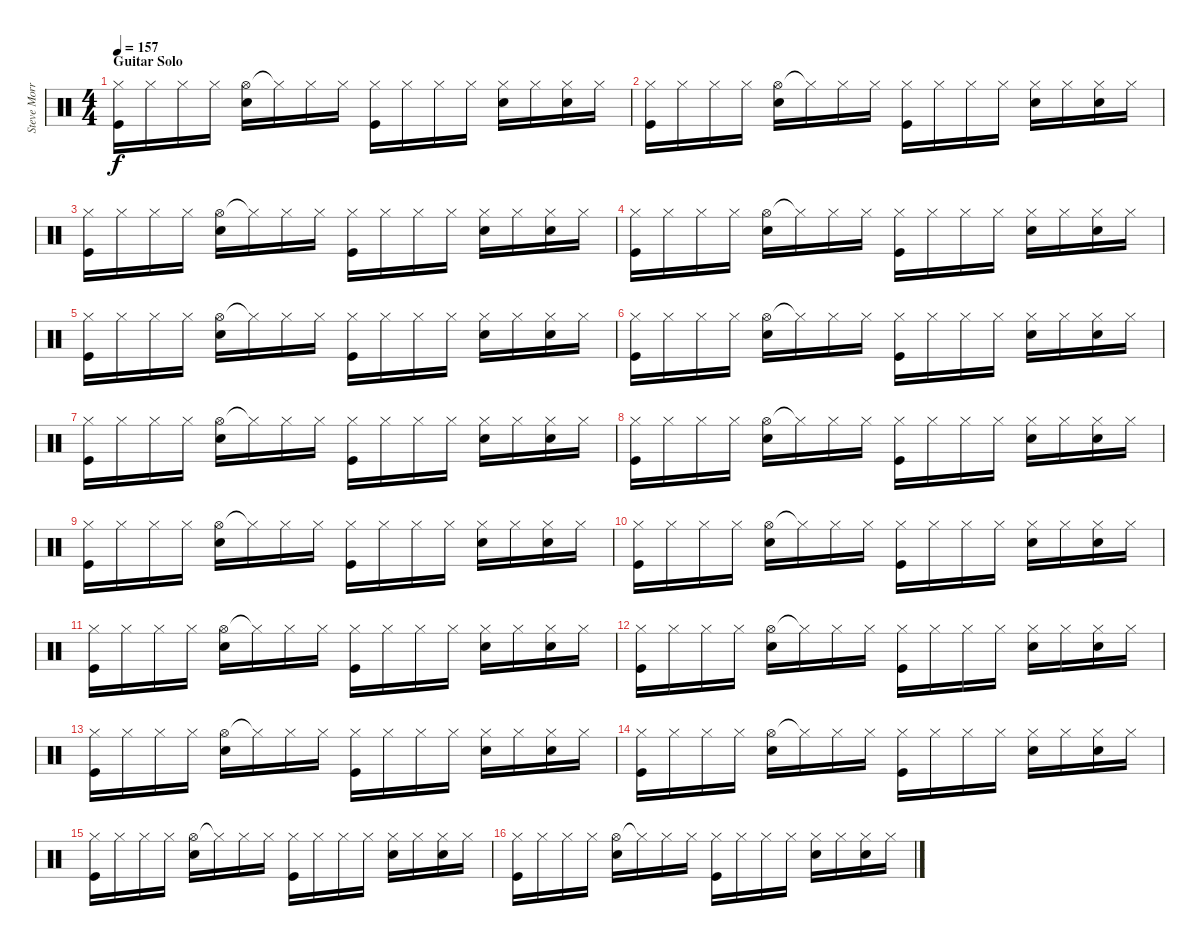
\track ("Steve Morris" "Steve Morr") {instrument percussion}
\staff {score}
\articulation defaults
\ts (4 4)
\section ("" "Guitar Solo")
\tempo 157
\clef neutral
\ks c
("Hi-Hat (closed)" "Kick (hit)").16{dy f} "Hi-Hat (closed)".16 "Hi-Hat (closed)".16 "Hi-Hat (closed)".16 ("Hi-Hat (open)" "Electric Snare (hit)").16 "Hi-Hat (closed)"{t}.16 "Hi-Hat (closed)".16 "Hi-Hat (closed)".16 ("Hi-Hat (closed)" "Kick (hit)").16 "Hi-Hat (closed)".16 "Hi-Hat (closed)".16 "Hi-Hat (closed)".16 ("Hi-Hat (closed)" "Electric Snare (hit)").16 "Hi-Hat (closed)".16 ("Hi-Hat (closed)" "Electric Snare (hit)").16 "Hi-Hat (closed)".16 |
("Hi-Hat (closed)" "Kick (hit)").16 "Hi-Hat (closed)".16 "Hi-Hat (closed)".16 "Hi-Hat (closed)".16 ("Hi-Hat (open)" "Electric Snare (hit)").16 "Hi-Hat (closed)"{t}.16 "Hi-Hat (closed)".16 "Hi-Hat (closed)".16 ("Hi-Hat (closed)" "Kick (hit)").16 "Hi-Hat (closed)".16 "Hi-Hat (closed)".16 "Hi-Hat (closed)".16 ("Hi-Hat (closed)" "Electric Snare (hit)").16 "Hi-Hat (closed)".16 ("Hi-Hat (closed)" "Electric Snare (hit)").16 "Hi-Hat (closed)".16 |
("Hi-Hat (closed)" "Kick (hit)").16 "Hi-Hat (closed)".16 "Hi-Hat (closed)".16 "Hi-Hat (closed)".16 ("Hi-Hat (open)" "Electric Snare (hit)").16 "Hi-Hat (closed)"{t}.16 "Hi-Hat (closed)".16 "Hi-Hat (closed)".16 ("Hi-Hat (closed)" "Kick (hit)").16 "Hi-Hat (closed)".16 "Hi-Hat (closed)".16 "Hi-Hat (closed)".16 ("Hi-Hat (closed)" "Electric Snare (hit)").16 "Hi-Hat (closed)".16 ("Hi-Hat (closed)" "Electric Snare (hit)").16 "Hi-Hat (closed)".16 |
("Hi-Hat (closed)" "Kick (hit)").16 "Hi-Hat (closed)".16 "Hi-Hat (closed)".16 "Hi-Hat (closed)".16 ("Hi-Hat (open)" "Electric Snare (hit)").16 "Hi-Hat (closed)"{t}.16 "Hi-Hat (closed)".16 "Hi-Hat (closed)".16 ("Hi-Hat (closed)" "Kick (hit)").16 "Hi-Hat (closed)".16 "Hi-Hat (closed)".16 "Hi-Hat (closed)".16 ("Hi-Hat (closed)" "Electric Snare (hit)").16 "Hi-Hat (closed)".16 ("Hi-Hat (closed)" "Electric Snare (hit)").16 "Hi-Hat (closed)".16 |
("Hi-Hat (closed)" "Kick (hit)").16 "Hi-Hat (closed)".16 "Hi-Hat (closed)".16 "Hi-Hat (closed)".16 ("Hi-Hat (open)" "Electric Snare (hit)").16 "Hi-Hat (closed)"{t}.16 "Hi-Hat (closed)".16 "Hi-Hat (closed)".16 ("Hi-Hat (closed)" "Kick (hit)").16 "Hi-Hat (closed)".16 "Hi-Hat (closed)".16 "Hi-Hat (closed)".16 ("Hi-Hat (closed)" "Electric Snare (hit)").16 "Hi-Hat (closed)".16 ("Hi-Hat (closed)" "Electric Snare (hit)").16 "Hi-Hat (closed)".16 |
("Hi-Hat (closed)" "Kick (hit)").16 "Hi-Hat (closed)".16 "Hi-Hat (closed)".16 "Hi-Hat (closed)".16 ("Hi-Hat (open)" "Electric Snare (hit)").16 "Hi-Hat (closed)"{t}.16 "Hi-Hat (closed)".16 "Hi-Hat (closed)".16 ("Hi-Hat (closed)" "Kick (hit)").16 "Hi-Hat (closed)".16 "Hi-Hat (closed)".16 "Hi-Hat (closed)".16 ("Hi-Hat (closed)" "Electric Snare (hit)").16 "Hi-Hat (closed)".16 ("Hi-Hat (closed)" "Electric Snare (hit)").16 "Hi-Hat (closed)".16 |
("Hi-Hat (closed)" "Kick (hit)").16 "Hi-Hat (closed)".16 "Hi-Hat (closed)".16 "Hi-Hat (closed)".16 ("Hi-Hat (open)" "Electric Snare (hit)").16 "Hi-Hat (closed)"{t}.16 "Hi-Hat (closed)".16 "Hi-Hat (closed)".16 ("Hi-Hat (closed)" "Kick (hit)").16 "Hi-Hat (closed)".16 "Hi-Hat (closed)".16 "Hi-Hat (closed)".16 ("Hi-Hat (closed)" "Electric Snare (hit)").16 "Hi-Hat (closed)".16 ("Hi-Hat (closed)" "Electric Snare (hit)").16 "Hi-Hat (closed)".16 |
("Hi-Hat (closed)" "Kick (hit)").16 "Hi-Hat (closed)".16 "Hi-Hat (closed)".16 "Hi-Hat (closed)".16 ("Hi-Hat (open)" "Electric Snare (hit)").16 "Hi-Hat (closed)"{t}.16 "Hi-Hat (closed)".16 "Hi-Hat (closed)".16 ("Hi-Hat (closed)" "Kick (hit)").16 "Hi-Hat (closed)".16 "Hi-Hat (closed)".16 "Hi-Hat (closed)".16 ("Hi-Hat (closed)" "Electric Snare (hit)").16 "Hi-Hat (closed)".16 ("Hi-Hat (closed)" "Electric Snare (hit)").16 "Hi-Hat (closed)".16 |
("Hi-Hat (closed)" "Kick (hit)").16 "Hi-Hat (closed)".16 "Hi-Hat (closed)".16 "Hi-Hat (closed)".16 ("Hi-Hat (open)" "Electric Snare (hit)").16 "Hi-Hat (closed)"{t}.16 "Hi-Hat (closed)".16 "Hi-Hat (closed)".16 ("Hi-Hat (closed)" "Kick (hit)").16 "Hi-Hat (closed)".16 "Hi-Hat (closed)".16 "Hi-Hat (closed)".16 ("Hi-Hat (closed)" "Electric Snare (hit)").16 "Hi-Hat (closed)".16 ("Hi-Hat (closed)" "Electric Snare (hit)").16 "Hi-Hat (closed)".16 |
("Hi-Hat (closed)" "Kick (hit)").16 "Hi-Hat (closed)".16 "Hi-Hat (closed)".16 "Hi-Hat (closed)".16 ("Hi-Hat (open)" "Electric Snare (hit)").16 "Hi-Hat (closed)"{t}.16 "Hi-Hat (closed)".16 "Hi-Hat (closed)".16 ("Hi-Hat (closed)" "Kick (hit)").16 "Hi-Hat (closed)".16 "Hi-Hat (closed)".16 "Hi-Hat (closed)".16 ("Hi-Hat (closed)" "Electric Snare (hit)").16 "Hi-Hat (closed)".16 ("Hi-Hat (closed)" "Electric Snare (hit)").16 "Hi-Hat (closed)".16 |
("Hi-Hat (closed)" "Kick (hit)").16 "Hi-Hat (closed)".16 "Hi-Hat (closed)".16 "Hi-Hat (closed)".16 ("Hi-Hat (open)" "Electric Snare (hit)").16 "Hi-Hat (closed)"{t}.16 "Hi-Hat (closed)".16 "Hi-Hat (closed)".16 ("Hi-Hat (closed)" "Kick (hit)").16 "Hi-Hat (closed)".16 "Hi-Hat (closed)".16 "Hi-Hat (closed)".16 ("Hi-Hat (closed)" "Electric Snare (hit)").16 "Hi-Hat (closed)".16 ("Hi-Hat (closed)" "Electric Snare (hit)").16 "Hi-Hat (closed)".16 |
("Hi-Hat (closed)" "Kick (hit)").16 "Hi-Hat (closed)".16 "Hi-Hat (closed)".16 "Hi-Hat (closed)".16 ("Hi-Hat (open)" "Electric Snare (hit)").16 "Hi-Hat (closed)"{t}.16 "Hi-Hat (closed)".16 "Hi-Hat (closed)".16 ("Hi-Hat (closed)" "Kick (hit)").16 "Hi-Hat (closed)".16 "Hi-Hat (closed)".16 "Hi-Hat (closed)".16 ("Hi-Hat (closed)" "Electric Snare (hit)").16 "Hi-Hat (closed)".16 ("Hi-Hat (closed)" "Electric Snare (hit)").16 "Hi-Hat (closed)".16 |
("Hi-Hat (closed)" "Kick (hit)").16 "Hi-Hat (closed)".16 "Hi-Hat (closed)".16 "Hi-Hat (closed)".16 ("Hi-Hat (open)" "Electric Snare (hit)").16 "Hi-Hat (closed)"{t}.16 "Hi-Hat (closed)".16 "Hi-Hat (closed)".16 ("Hi-Hat (closed)" "Kick (hit)").16 "Hi-Hat (closed)".16 "Hi-Hat (closed)".16 "Hi-Hat (closed)".16 ("Hi-Hat (closed)" "Electric Snare (hit)").16 "Hi-Hat (closed)".16 ("Hi-Hat (closed)" "Electric Snare (hit)").16 "Hi-Hat (closed)".16 |
("Hi-Hat (closed)" "Kick (hit)").16 "Hi-Hat (closed)".16 "Hi-Hat (closed)".16 "Hi-Hat (closed)".16 ("Hi-Hat (open)" "Electric Snare (hit)").16 "Hi-Hat (closed)"{t}.16 "Hi-Hat (closed)".16 "Hi-Hat (closed)".16 ("Hi-Hat (closed)" "Kick (hit)").16 "Hi-Hat (closed)".16 "Hi-Hat (closed)".16 "Hi-Hat (closed)".16 ("Hi-Hat (closed)" "Electric Snare (hit)").16 "Hi-Hat (closed)".16 ("Hi-Hat (closed)" "Electric Snare (hit)").16 "Hi-Hat (closed)".16 |
("Hi-Hat (closed)" "Kick (hit)").16 "Hi-Hat (closed)".16 "Hi-Hat (closed)".16 "Hi-Hat (closed)".16 ("Hi-Hat (open)" "Electric Snare (hit)").16 "Hi-Hat (closed)"{t}.16 "Hi-Hat (closed)".16 "Hi-Hat (closed)".16 ("Hi-Hat (closed)" "Kick (hit)").16 "Hi-Hat (closed)".16 "Hi-Hat (closed)".16 "Hi-Hat (closed)".16 ("Hi-Hat (closed)" "Electric Snare (hit)").16 "Hi-Hat (closed)".16 ("Hi-Hat (closed)" "Electric Snare (hit)").16 "Hi-Hat (closed)".16 |
("Hi-Hat (closed)" "Kick (hit)").16 "Hi-Hat (closed)".16 "Hi-Hat (closed)".16 "Hi-Hat (closed)".16 ("Hi-Hat (open)" "Electric Snare (hit)").16 "Hi-Hat (closed)"{t}.16 "Hi-Hat (closed)".16 "Hi-Hat (closed)".16 ("Hi-Hat (closed)" "Kick (hit)").16 "Hi-Hat (closed)".16 "Hi-Hat (closed)".16 "Hi-Hat (closed)".16 ("Hi-Hat (closed)" "Electric Snare (hit)").16 "Hi-Hat (closed)".16 ("Hi-Hat (closed)" "Electric Snare (hit)").16 "Hi-Hat (closed)".16
